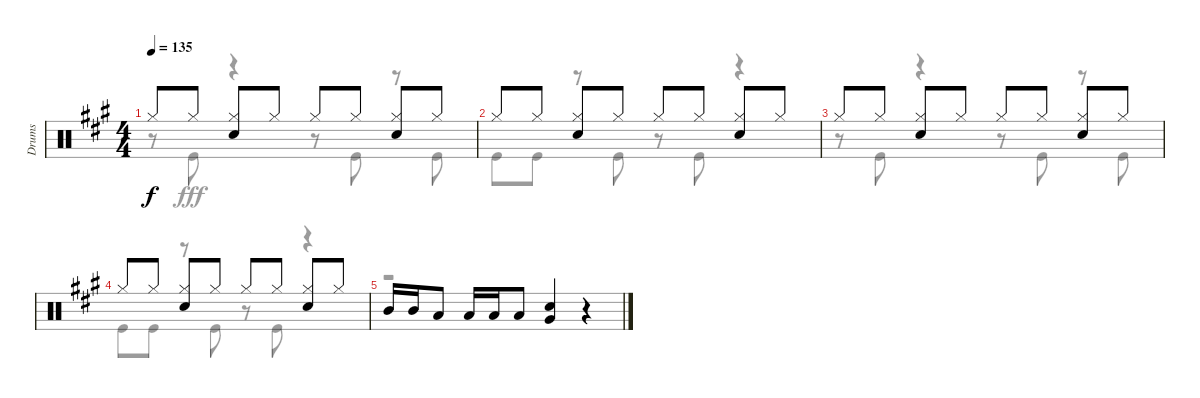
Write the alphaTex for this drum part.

\track ("Drums" "Drums") {instrument percussion}
\staff {score}
\articulation defaults
\voice
\ts (4 4)
\tempo 135
\clef neutral
\ks a "Hi-Hat (closed)".8{dy f} "Hi-Hat (closed)".8
("Hi-Hat (closed)" "Snare (hit) 2").8 "Hi-Hat (closed)".8 "Hi-Hat (closed)".8 "Hi-Hat (closed)".8 ("Hi-Hat (closed)" "Snare (hit) 2").8 "Hi-Hat (closed)".8 |
"Hi-Hat (closed)".8 "Hi-Hat (closed)".8 ("Hi-Hat (closed)" "Snare (hit) 2").8 "Hi-Hat (closed)".8 "Hi-Hat (closed)".8 "Hi-Hat (closed)".8 ("Hi-Hat (closed)" "Snare (hit) 2").8 "Hi-Hat (closed)".8 |
"Hi-Hat (closed)".8 "Hi-Hat (closed)".8 ("Hi-Hat (closed)" "Snare (hit) 2").8 "Hi-Hat (closed)".8 "Hi-Hat (closed)".8 "Hi-Hat (closed)".8 ("Hi-Hat (closed)" "Snare (hit) 2").8 "Hi-Hat (closed)".8 |
"Hi-Hat (closed)".8 "Hi-Hat (closed)".8 ("Hi-Hat (closed)" "Snare (hit) 2").8 "Hi-Hat (closed)".8 "Hi-Hat (closed)".8 "Hi-Hat (closed)".8 ("Hi-Hat (closed)" "Snare (hit) 2").8 "Hi-Hat (closed)".8 |
"Mid Tom (hit)".16 "Mid Tom (hit)".16 "Low Tom (hit)".8 "Low Tom (hit)".16 "Low Tom (hit)".16 "Low Tom (hit)".8 ("Snare (hit) 2" "Very Low Tom (hit)").4 r.4
\voice
\clef neutral
\ottava regular
\simile none
\ks a
r.8{dy fff} "Kick (hit)".8 r.4 r.8 "Kick (hit)".8 r.8 "Kick (hit)".8 |
"Kick (hit)".8 "Kick (hit)".8 r.8 "Kick (hit)".8 r.8 "Kick (hit)".8 r.4 |
r.8 "Kick (hit)".8 r.4 r.8 "Kick (hit)".8 r.8 "Kick (hit)".8 |
"Kick (hit)".8 "Kick (hit)".8 r.8 "Kick (hit)".8 r.8 "Kick (hit)".8 r.4 |
r.1
